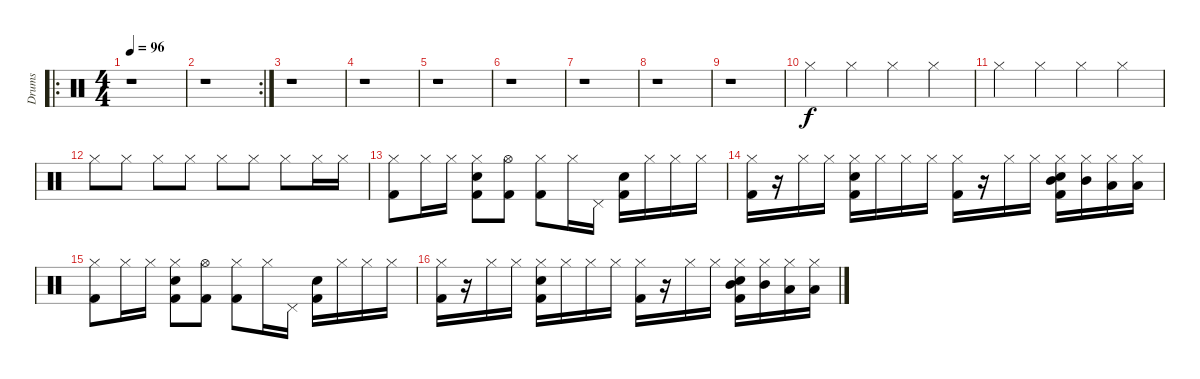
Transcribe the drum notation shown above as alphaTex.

\track ("Drums" "Drums") {instrument percussion}
\staff {score}
\articulation defaults
\ro
\ts (4 4)
\tempo 96
\clef neutral
\ks c
r.1{dy f} |
\rc 2
r.1 |
r.1 |
r.1 |
r.1 |
r.1 |
r.1 |
r.1 |
r.1{volume 0} |
"Hi-Hat (closed)".4{volume 9} "Hi-Hat (closed)".4 "Hi-Hat (closed)".4 "Hi-Hat (closed)".4 |
"Hi-Hat (closed)".4 "Hi-Hat (closed)".4 "Hi-Hat (closed)".4 "Hi-Hat (closed)".4 |
"Hi-Hat (closed)".8 "Hi-Hat (closed)".8 "Hi-Hat (closed)".8 "Hi-Hat (closed)".8 "Hi-Hat (closed)".8 "Hi-Hat (closed)".8 "Hi-Hat (closed)".8 "Hi-Hat (closed)".16 "Hi-Hat (closed)".16 |
("Hi-Hat (closed)" "Kick (hit) 2").8 "Hi-Hat (closed)".16 "Hi-Hat (closed)".16 ("Hi-Hat (closed)" "Snare (hit) 2" "Kick (hit) 2").8 ("Hi-Hat (open)" "Kick (hit) 2").8 ("Hi-Hat (closed)" "Kick (hit) 2").8 "Hi-Hat (closed)".16 "Pedal Hi-Hat (hit)".16 ("Snare (hit) 2" "Kick (hit) 2").16 "Hi-Hat (closed)".16 "Hi-Hat (closed)".16 "Hi-Hat (closed)".16 |
("Hi-Hat (closed)" "Kick (hit) 2").16 r.16 "Hi-Hat (closed)".16 "Hi-Hat (closed)".16 ("Hi-Hat (closed)" "Snare (hit) 2" "Kick (hit) 2").16 "Hi-Hat (closed)".16 "Hi-Hat (closed)".16 "Hi-Hat (closed)".16 ("Hi-Hat (closed)" "Kick (hit) 2").16 r.16 "Hi-Hat (closed)".16 "Hi-Hat (closed)".16 ("Hi-Hat (closed)" "Snare (hit) 2" "Mid Tom (hit)" "Kick (hit) 2").16 ("Hi-Hat (closed)" "Mid Tom (hit)").16 ("Hi-Hat (closed)" "Low Tom (hit)").16 ("Hi-Hat (closed)" "Low Tom (hit)").16 |
("Hi-Hat (closed)" "Kick (hit) 2").8 "Hi-Hat (closed)".16 "Hi-Hat (closed)".16 ("Hi-Hat (closed)" "Snare (hit) 2" "Kick (hit) 2").8 ("Hi-Hat (open)" "Kick (hit) 2").8 ("Hi-Hat (closed)" "Kick (hit) 2").8 "Hi-Hat (closed)".16 "Pedal Hi-Hat (hit)".16 ("Snare (hit) 2" "Kick (hit) 2").16 "Hi-Hat (closed)".16 "Hi-Hat (closed)".16 "Hi-Hat (closed)".16 |
("Hi-Hat (closed)" "Kick (hit) 2").16 r.16 "Hi-Hat (closed)".16 "Hi-Hat (closed)".16 ("Hi-Hat (closed)" "Snare (hit) 2" "Kick (hit) 2").16 "Hi-Hat (closed)".16 "Hi-Hat (closed)".16 "Hi-Hat (closed)".16 ("Hi-Hat (closed)" "Kick (hit) 2").16 r.16 "Hi-Hat (closed)".16 "Hi-Hat (closed)".16 ("Hi-Hat (closed)" "Snare (hit) 2" "Mid Tom (hit)" "Kick (hit) 2").16 ("Hi-Hat (closed)" "Mid Tom (hit)").16 ("Hi-Hat (closed)" "Low Tom (hit)").16 ("Hi-Hat (closed)" "Low Tom (hit)").16
